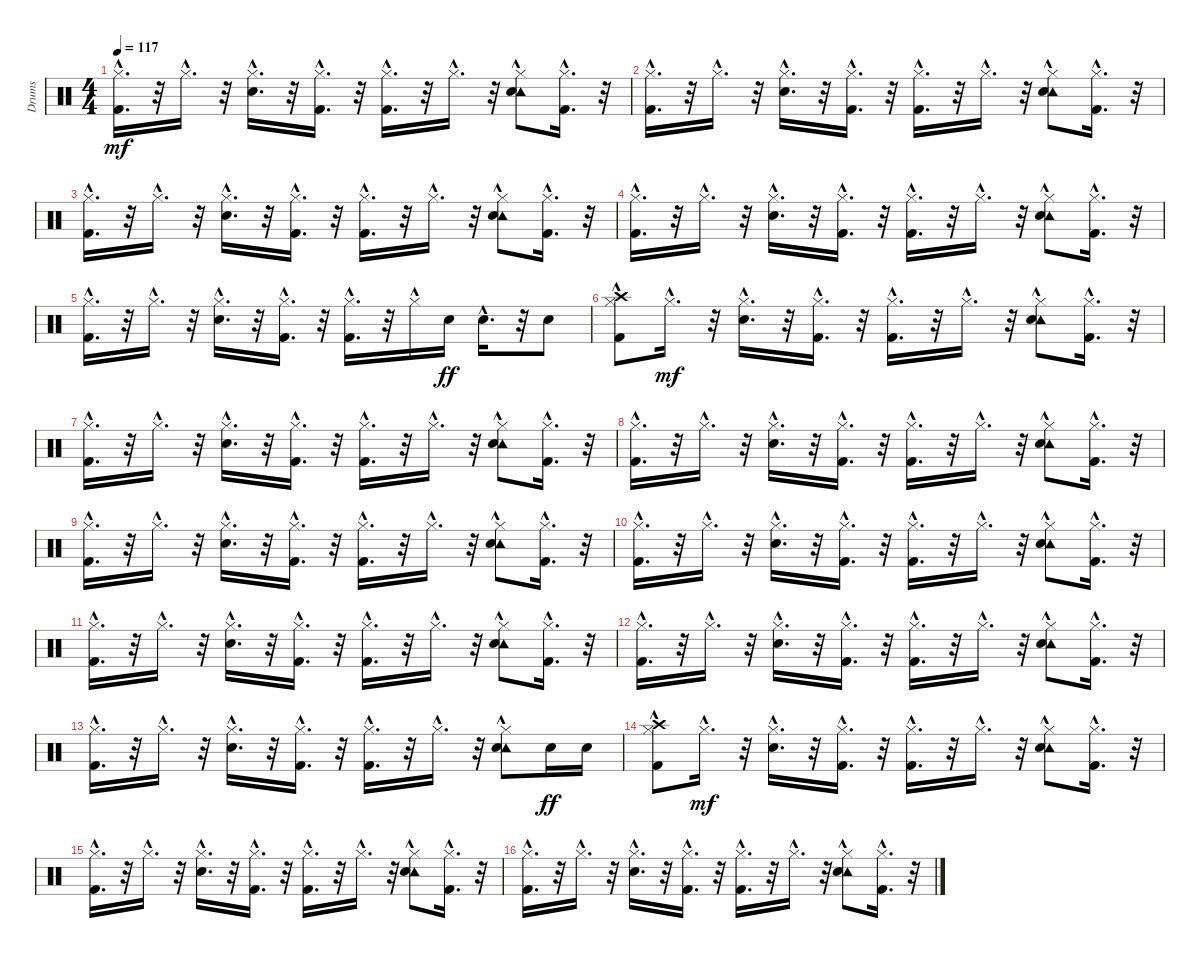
\track ("Drums" "Drums") {instrument percussion}
\staff {score}
\articulation defaults
\ts (4 4)
\tempo 117
\clef neutral
\ks c
("Kick (hit) 2"{hac} "Hi-Hat (closed)"{hac}).16{d dy mf} r.32 "Hi-Hat (closed)"{hac}.16{d} r.32 ("Snare (hit) 2"{hac} "Hi-Hat (closed)"{hac}).16{d} r.32 ("Kick (hit) 2"{hac} "Hi-Hat (closed)"{hac}).16{d} r.32 ("Kick (hit) 2"{hac} "Hi-Hat (closed)"{hac}).16{d} r.32 "Hi-Hat (closed)"{hac}.16{d} r.32 ("Tambourine (hit)" "Snare (hit) 2"{hac} "Hi-Hat (closed)"{hac}).8 ("Kick (hit) 2"{hac} "Hi-Hat (closed)"{hac}).16{d} r.32 |
("Kick (hit) 2"{hac} "Hi-Hat (closed)"{hac}).16{d} r.32 "Hi-Hat (closed)"{hac}.16{d} r.32 ("Snare (hit) 2"{hac} "Hi-Hat (closed)"{hac}).16{d} r.32 ("Kick (hit) 2"{hac} "Hi-Hat (closed)"{hac}).16{d} r.32 ("Kick (hit) 2"{hac} "Hi-Hat (closed)"{hac}).16{d} r.32 "Hi-Hat (closed)"{hac}.16{d} r.32 ("Tambourine (hit)" "Snare (hit) 2"{hac} "Hi-Hat (closed)"{hac}).8 ("Kick (hit) 2"{hac} "Hi-Hat (closed)"{hac}).16{d} r.32 |
("Kick (hit) 2"{hac} "Hi-Hat (closed)"{hac}).16{d} r.32 "Hi-Hat (closed)"{hac}.16{d} r.32 ("Snare (hit) 2"{hac} "Hi-Hat (closed)"{hac}).16{d} r.32 ("Kick (hit) 2"{hac} "Hi-Hat (closed)"{hac}).16{d} r.32 ("Kick (hit) 2"{hac} "Hi-Hat (closed)"{hac}).16{d} r.32 "Hi-Hat (closed)"{hac}.16{d} r.32 ("Tambourine (hit)" "Snare (hit) 2"{hac} "Hi-Hat (closed)"{hac}).8 ("Kick (hit) 2"{hac} "Hi-Hat (closed)"{hac}).16{d} r.32 |
("Kick (hit) 2"{hac} "Hi-Hat (closed)"{hac}).16{d} r.32 "Hi-Hat (closed)"{hac}.16{d} r.32 ("Snare (hit) 2"{hac} "Hi-Hat (closed)"{hac}).16{d} r.32 ("Kick (hit) 2"{hac} "Hi-Hat (closed)"{hac}).16{d} r.32 ("Kick (hit) 2"{hac} "Hi-Hat (closed)"{hac}).16{d} r.32 "Hi-Hat (closed)"{hac}.16{d} r.32 ("Tambourine (hit)" "Snare (hit) 2"{hac} "Hi-Hat (closed)"{hac}).8 ("Kick (hit) 2"{hac} "Hi-Hat (closed)"{hac}).16{d} r.32 |
("Kick (hit) 2"{hac} "Hi-Hat (closed)"{hac}).16{d} r.32 "Hi-Hat (closed)"{hac}.16{d} r.32 ("Snare (hit) 2"{hac} "Hi-Hat (closed)"{hac}).16{d} r.32 ("Kick (hit) 2"{hac} "Hi-Hat (closed)"{hac}).16{d} r.32 ("Kick (hit) 2"{hac} "Hi-Hat (closed)"{hac}).16{d} r.32 "Hi-Hat (closed)"{hac}.16 "Snare (hit) 2".16{dy ff} "Snare (hit) 2"{hac}.16{d} r.32 "Snare (hit) 2".8 |
("Kick (hit) 2"{hac} "Hi-Hat (closed)"{hac} "Crash high (hit)").8 "Hi-Hat (closed)"{hac}.16{d dy mf} r.32 ("Snare (hit) 2"{hac} "Hi-Hat (closed)"{hac}).16{d} r.32 ("Kick (hit) 2"{hac} "Hi-Hat (closed)"{hac}).16{d} r.32 ("Kick (hit) 2"{hac} "Hi-Hat (closed)"{hac}).16{d} r.32 "Hi-Hat (closed)"{hac}.16{d} r.32 ("Tambourine (hit)" "Snare (hit) 2"{hac} "Hi-Hat (closed)"{hac}).8 ("Kick (hit) 2"{hac} "Hi-Hat (closed)"{hac}).16{d} r.32 |
("Kick (hit) 2"{hac} "Hi-Hat (closed)"{hac}).16{d} r.32 "Hi-Hat (closed)"{hac}.16{d} r.32 ("Snare (hit) 2"{hac} "Hi-Hat (closed)"{hac}).16{d} r.32 ("Kick (hit) 2"{hac} "Hi-Hat (closed)"{hac}).16{d} r.32 ("Kick (hit) 2"{hac} "Hi-Hat (closed)"{hac}).16{d} r.32 "Hi-Hat (closed)"{hac}.16{d} r.32 ("Tambourine (hit)" "Snare (hit) 2"{hac} "Hi-Hat (closed)"{hac}).8 ("Kick (hit) 2"{hac} "Hi-Hat (closed)"{hac}).16{d} r.32 |
("Kick (hit) 2"{hac} "Hi-Hat (closed)"{hac}).16{d} r.32 "Hi-Hat (closed)"{hac}.16{d} r.32 ("Snare (hit) 2"{hac} "Hi-Hat (closed)"{hac}).16{d} r.32 ("Kick (hit) 2"{hac} "Hi-Hat (closed)"{hac}).16{d} r.32 ("Kick (hit) 2"{hac} "Hi-Hat (closed)"{hac}).16{d} r.32 "Hi-Hat (closed)"{hac}.16{d} r.32 ("Tambourine (hit)" "Snare (hit) 2"{hac} "Hi-Hat (closed)"{hac}).8 ("Kick (hit) 2"{hac} "Hi-Hat (closed)"{hac}).16{d} r.32 |
("Kick (hit) 2"{hac} "Hi-Hat (closed)"{hac}).16{d} r.32 "Hi-Hat (closed)"{hac}.16{d} r.32 ("Snare (hit) 2"{hac} "Hi-Hat (closed)"{hac}).16{d} r.32 ("Kick (hit) 2"{hac} "Hi-Hat (closed)"{hac}).16{d} r.32 ("Kick (hit) 2"{hac} "Hi-Hat (closed)"{hac}).16{d} r.32 "Hi-Hat (closed)"{hac}.16{d} r.32 ("Tambourine (hit)" "Snare (hit) 2"{hac} "Hi-Hat (closed)"{hac}).8 ("Kick (hit) 2"{hac} "Hi-Hat (closed)"{hac}).16{d} r.32 |
("Kick (hit) 2"{hac} "Hi-Hat (closed)"{hac}).16{d} r.32 "Hi-Hat (closed)"{hac}.16{d} r.32 ("Snare (hit) 2"{hac} "Hi-Hat (closed)"{hac}).16{d} r.32 ("Kick (hit) 2"{hac} "Hi-Hat (closed)"{hac}).16{d} r.32 ("Kick (hit) 2"{hac} "Hi-Hat (closed)"{hac}).16{d} r.32 "Hi-Hat (closed)"{hac}.16{d} r.32 ("Tambourine (hit)" "Snare (hit) 2"{hac} "Hi-Hat (closed)"{hac}).8 ("Kick (hit) 2"{hac} "Hi-Hat (closed)"{hac}).16{d} r.32 |
("Kick (hit) 2"{hac} "Hi-Hat (closed)"{hac}).16{d} r.32 "Hi-Hat (closed)"{hac}.16{d} r.32 ("Snare (hit) 2"{hac} "Hi-Hat (closed)"{hac}).16{d} r.32 ("Kick (hit) 2"{hac} "Hi-Hat (closed)"{hac}).16{d} r.32 ("Kick (hit) 2"{hac} "Hi-Hat (closed)"{hac}).16{d} r.32 "Hi-Hat (closed)"{hac}.16{d} r.32 ("Tambourine (hit)" "Snare (hit) 2"{hac} "Hi-Hat (closed)"{hac}).8 ("Kick (hit) 2"{hac} "Hi-Hat (closed)"{hac}).16{d} r.32 |
("Kick (hit) 2"{hac} "Hi-Hat (closed)"{hac}).16{d} r.32 "Hi-Hat (closed)"{hac}.16{d} r.32 ("Snare (hit) 2"{hac} "Hi-Hat (closed)"{hac}).16{d} r.32 ("Kick (hit) 2"{hac} "Hi-Hat (closed)"{hac}).16{d} r.32 ("Kick (hit) 2"{hac} "Hi-Hat (closed)"{hac}).16{d} r.32 "Hi-Hat (closed)"{hac}.16{d} r.32 ("Tambourine (hit)" "Snare (hit) 2"{hac} "Hi-Hat (closed)"{hac}).8 ("Kick (hit) 2"{hac} "Hi-Hat (closed)"{hac}).16{d} r.32 |
("Kick (hit) 2"{hac} "Hi-Hat (closed)"{hac}).16{d} r.32 "Hi-Hat (closed)"{hac}.16{d} r.32 ("Snare (hit) 2"{hac} "Hi-Hat (closed)"{hac}).16{d} r.32 ("Kick (hit) 2"{hac} "Hi-Hat (closed)"{hac}).16{d} r.32 ("Kick (hit) 2"{hac} "Hi-Hat (closed)"{hac}).16{d} r.32 "Hi-Hat (closed)"{hac}.16{d} r.32 ("Tambourine (hit)" "Snare (hit) 2"{hac} "Hi-Hat (closed)"{hac}).8 "Snare (hit) 2".16{dy ff} "Snare (hit) 2".16 |
("Kick (hit) 2"{hac} "Hi-Hat (closed)"{hac} "Crash high (hit)").8 "Hi-Hat (closed)"{hac}.16{d dy mf} r.32 ("Snare (hit) 2"{hac} "Hi-Hat (closed)"{hac}).16{d} r.32 ("Kick (hit) 2"{hac} "Hi-Hat (closed)"{hac}).16{d} r.32 ("Kick (hit) 2"{hac} "Hi-Hat (closed)"{hac}).16{d} r.32 "Hi-Hat (closed)"{hac}.16{d} r.32 ("Tambourine (hit)" "Snare (hit) 2"{hac} "Hi-Hat (closed)"{hac}).8 ("Kick (hit) 2"{hac} "Hi-Hat (closed)"{hac}).16{d} r.32 |
("Kick (hit) 2"{hac} "Hi-Hat (closed)"{hac}).16{d} r.32 "Hi-Hat (closed)"{hac}.16{d} r.32 ("Snare (hit) 2"{hac} "Hi-Hat (closed)"{hac}).16{d} r.32 ("Kick (hit) 2"{hac} "Hi-Hat (closed)"{hac}).16{d} r.32 ("Kick (hit) 2"{hac} "Hi-Hat (closed)"{hac}).16{d} r.32 "Hi-Hat (closed)"{hac}.16{d} r.32 ("Tambourine (hit)" "Snare (hit) 2"{hac} "Hi-Hat (closed)"{hac}).8 ("Kick (hit) 2"{hac} "Hi-Hat (closed)"{hac}).16{d} r.32 |
("Kick (hit) 2"{hac} "Hi-Hat (closed)"{hac}).16{d} r.32 "Hi-Hat (closed)"{hac}.16{d} r.32 ("Snare (hit) 2"{hac} "Hi-Hat (closed)"{hac}).16{d} r.32 ("Kick (hit) 2"{hac} "Hi-Hat (closed)"{hac}).16{d} r.32 ("Kick (hit) 2"{hac} "Hi-Hat (closed)"{hac}).16{d} r.32 "Hi-Hat (closed)"{hac}.16{d} r.32 ("Tambourine (hit)" "Snare (hit) 2"{hac} "Hi-Hat (closed)"{hac}).8 ("Kick (hit) 2"{hac} "Hi-Hat (closed)"{hac}).16{d} r.32
